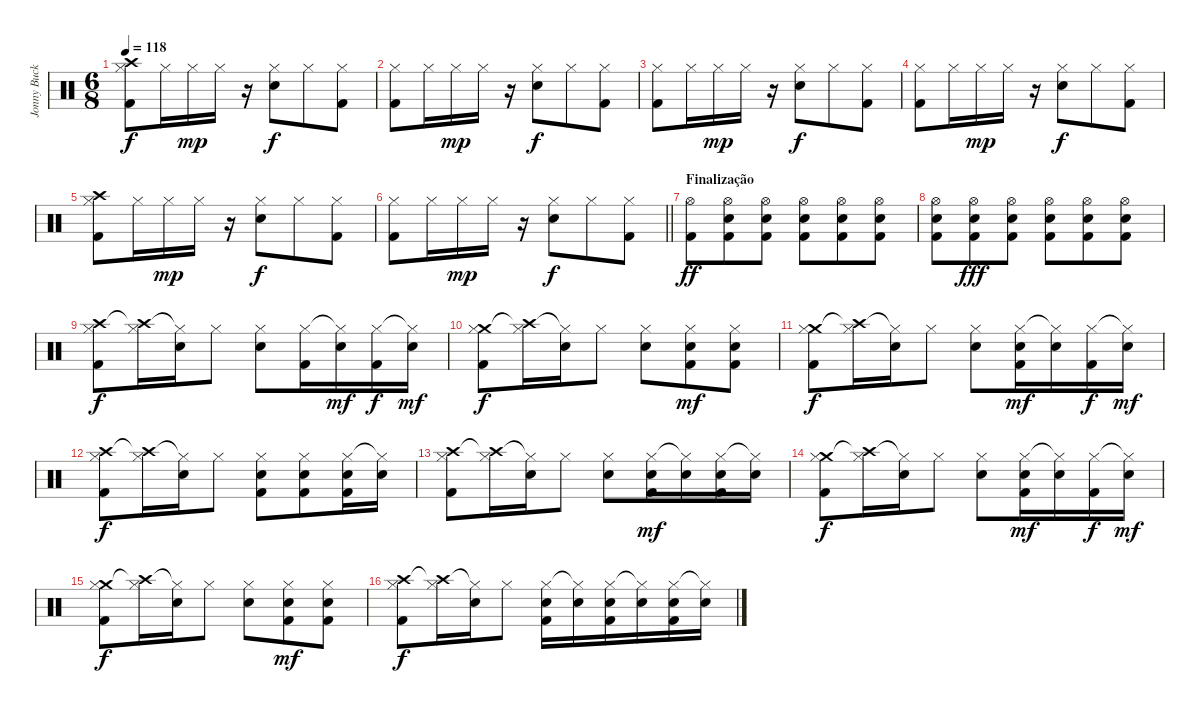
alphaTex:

\track ("Jonny Buckland (batera)" "Jonny Buck") {instrument percussion}
\staff {score}
\articulation defaults
\ts (6 8)
\tempo 118
\clef neutral
\ks c
("Crash high (hit)" "Hi-Hat (closed)" "Kick (hit) 2").8{dy f} "Hi-Hat (closed)".16 "Hi-Hat (closed)".16{dy mp} "Hi-Hat (closed)".16 r.16 ("Hi-Hat (closed)" "Electric Snare (hit)").8{dy f} "Hi-Hat (closed)".8 ("Hi-Hat (closed)" "Kick (hit) 2").8 |
("Hi-Hat (closed)" "Kick (hit) 2").8 "Hi-Hat (closed)".16 "Hi-Hat (closed)".16{dy mp} "Hi-Hat (closed)".16 r.16 ("Hi-Hat (closed)" "Electric Snare (hit)").8{dy f} "Hi-Hat (closed)".8 ("Hi-Hat (closed)" "Kick (hit) 2").8 |
("Hi-Hat (closed)" "Kick (hit) 2").8 "Hi-Hat (closed)".16 "Hi-Hat (closed)".16{dy mp} "Hi-Hat (closed)".16 r.16 ("Hi-Hat (closed)" "Electric Snare (hit)").8{dy f} "Hi-Hat (closed)".8 ("Hi-Hat (closed)" "Kick (hit) 2").8 |
("Hi-Hat (closed)" "Kick (hit) 2").8 "Hi-Hat (closed)".16 "Hi-Hat (closed)".16{dy mp} "Hi-Hat (closed)".16 r.16 ("Hi-Hat (closed)" "Electric Snare (hit)").8{dy f} "Hi-Hat (closed)".8 ("Hi-Hat (closed)" "Kick (hit) 2").8 |
("Crash high (hit)" "Hi-Hat (closed)" "Kick (hit) 2").8 "Hi-Hat (closed)".16 "Hi-Hat (closed)".16{dy mp} "Hi-Hat (closed)".16 r.16 ("Hi-Hat (closed)" "Electric Snare (hit)").8{dy f} "Hi-Hat (closed)".8 ("Hi-Hat (closed)" "Kick (hit) 2").8 |
\barLineRight lightlight
("Hi-Hat (closed)" "Kick (hit) 2").8 "Hi-Hat (closed)".16 "Hi-Hat (closed)".16{dy mp} "Hi-Hat (closed)".16 r.16 ("Hi-Hat (closed)" "Electric Snare (hit)").8{dy f} "Hi-Hat (closed)".8 ("Hi-Hat (closed)" "Kick (hit) 2").8 |
\section ("" "Finalização")
("Hi-Hat (open)" "Kick (hit) 2").8{dy ff} ("Hi-Hat (open)" "Electric Snare (hit)" "Kick (hit) 2").8 ("Hi-Hat (open)" "Electric Snare (hit)" "Kick (hit) 2").8 ("Hi-Hat (open)" "Electric Snare (hit)" "Kick (hit) 2").8 ("Hi-Hat (open)" "Electric Snare (hit)" "Kick (hit) 2").8 ("Hi-Hat (open)" "Electric Snare (hit)" "Kick (hit) 2").8 |
("Hi-Hat (open)" "Electric Snare (hit)" "Kick (hit) 2").8 ("Hi-Hat (open)" "Electric Snare (hit)" "Kick (hit) 2").8{dy fff} ("Hi-Hat (open)" "Electric Snare (hit)" "Kick (hit) 2").8 ("Hi-Hat (open)" "Electric Snare (hit)" "Kick (hit) 2").8 ("Hi-Hat (open)" "Electric Snare (hit)" "Kick (hit) 2").8 ("Hi-Hat (open)" "Electric Snare (hit)" "Kick (hit) 2").8 |
("Crash high (hit)" "Hi-Hat (closed)" "Kick (hit) 2").8{dy f} ("Crash high (hit)"{t} "Hi-Hat (closed)").16 ("Hi-Hat (closed)"{t} "Electric Snare (hit)").16 "Hi-Hat (closed)".8 ("Hi-Hat (closed)" "Electric Snare (hit)").8 ("Hi-Hat (closed)" "Kick (hit) 2").16 ("Hi-Hat (closed)"{t} "Snare (hit) 2").16{dy mf} ("Hi-Hat (closed)" "Kick (hit) 2").16{dy f} ("Hi-Hat (closed)"{t} "Snare (hit) 2").16{dy mf} |
("Crash medium (hit)" "Hi-Hat (closed)" "Kick (hit) 2").8{dy f} ("Crash high (hit)"{t} "Hi-Hat (closed)").16 ("Hi-Hat (closed)"{t} "Electric Snare (hit)").16 "Hi-Hat (closed)".8 ("Hi-Hat (closed)" "Electric Snare (hit)").8 ("Hi-Hat (closed)" "Snare (hit) 2" "Kick (hit) 2").8{dy mf} ("Hi-Hat (closed)" "Snare (hit) 2" "Kick (hit) 2").8 |
("Crash medium (hit)" "Hi-Hat (closed)" "Kick (hit) 2").8{dy f} ("Crash high (hit)"{t} "Hi-Hat (closed)").16 ("Hi-Hat (closed)"{t} "Electric Snare (hit)").16 "Hi-Hat (closed)".8 ("Hi-Hat (closed)" "Electric Snare (hit)").8 ("Hi-Hat (closed)" "Snare (hit) 2" "Kick (hit) 2").16{dy mf} ("Hi-Hat (closed)"{t} "Snare (hit) 2").16 ("Hi-Hat (closed)" "Kick (hit) 2").16{dy f} ("Hi-Hat (closed)"{t} "Snare (hit) 2").16{dy mf} |
("Crash high (hit)" "Hi-Hat (closed)" "Kick (hit) 2").8{dy f} ("Crash high (hit)"{t} "Hi-Hat (closed)").16 ("Hi-Hat (closed)"{t} "Electric Snare (hit)").16 "Hi-Hat (closed)".8 ("Hi-Hat (closed)" "Electric Snare (hit)" "Kick (hit) 2").8 ("Hi-Hat (closed)" "Electric Snare (hit)" "Kick (hit) 2").8 ("Hi-Hat (closed)" "Electric Snare (hit)" "Kick (hit) 2").16 ("Hi-Hat (closed)"{t} "Electric Snare (hit)").16 |
("Crash high (hit)" "Hi-Hat (closed)" "Kick (hit) 2").8 ("Crash high (hit)"{t} "Hi-Hat (closed)").16 ("Hi-Hat (closed)"{t} "Electric Snare (hit)").16 "Hi-Hat (closed)".8 ("Hi-Hat (closed)" "Electric Snare (hit)").8 ("Hi-Hat (closed)" "Snare (hit) 2" "Kick (hit) 2").16{dy mf} ("Hi-Hat (closed)"{t} "Snare (hit) 2").16 ("Hi-Hat (closed)" "Snare (hit) 2" "Kick (hit) 2").16 ("Hi-Hat (closed)"{t} "Snare (hit) 2").16 |
("Crash medium (hit)" "Hi-Hat (closed)" "Kick (hit) 2").8{dy f} ("Crash high (hit)"{t} "Hi-Hat (closed)").16 ("Hi-Hat (closed)"{t} "Electric Snare (hit)").16 "Hi-Hat (closed)".8 ("Hi-Hat (closed)" "Electric Snare (hit)").8 ("Hi-Hat (closed)" "Snare (hit) 2" "Kick (hit) 2").16{dy mf} ("Hi-Hat (closed)"{t} "Snare (hit) 2").16 ("Hi-Hat (closed)" "Kick (hit) 2").16{dy f} ("Hi-Hat (closed)"{t} "Snare (hit) 2").16{dy mf} |
("Crash medium (hit)" "Hi-Hat (closed)" "Kick (hit) 2").8{dy f} ("Crash high (hit)"{t} "Hi-Hat (closed)").16 ("Hi-Hat (closed)"{t} "Electric Snare (hit)").16 "Hi-Hat (closed)".8 ("Hi-Hat (closed)" "Electric Snare (hit)").8 ("Hi-Hat (closed)" "Snare (hit) 2" "Kick (hit) 2").8{dy mf} ("Hi-Hat (closed)" "Snare (hit) 2" "Kick (hit) 2").8 |
("Crash high (hit)" "Hi-Hat (closed)" "Kick (hit) 2").8{dy f} ("Crash high (hit)"{t} "Hi-Hat (closed)").16 ("Hi-Hat (closed)"{t} "Electric Snare (hit)").16 "Hi-Hat (closed)".8 ("Hi-Hat (closed)" "Electric Snare (hit)" "Kick (hit) 2").16 ("Hi-Hat (closed)"{t} "Electric Snare (hit)").16 ("Hi-Hat (closed)" "Electric Snare (hit)" "Kick (hit) 2").16 ("Hi-Hat (closed)"{t} "Electric Snare (hit)").16 ("Hi-Hat (closed)" "Snare (hit) 2" "Kick (hit) 2").16 ("Hi-Hat (closed)"{t} "Snare (hit) 2").16
